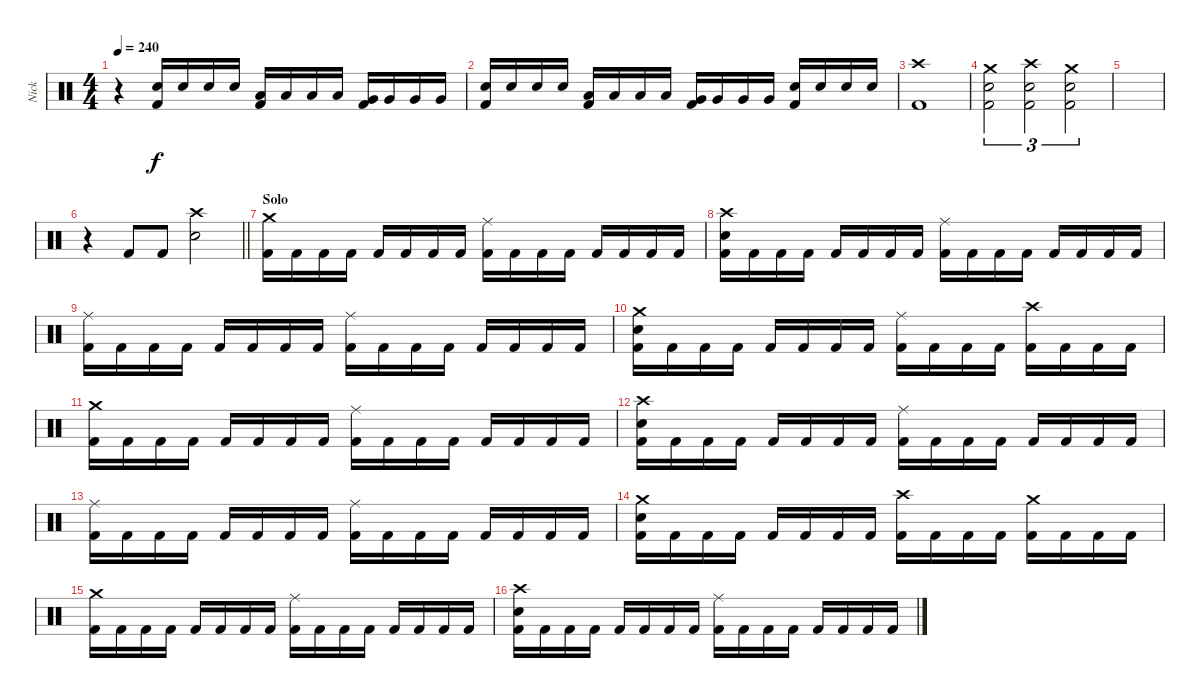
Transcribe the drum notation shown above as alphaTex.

\track ("Nick" "Nick") {instrument percussion}
\staff {score}
\articulation defaults
\ts (4 4)
\tempo 240
\clef neutral
\ks c
r.4{dy f} ("Electric Snare (hit)" "Kick (hit) 2").16 "Electric Snare (hit)".16 "Electric Snare (hit)".16 "Electric Snare (hit)".16 ("Low Tom (hit)" "Kick (hit) 2").16 "Low Tom (hit)".16 "Low Tom (hit)".16 "Low Tom (hit)".16 ("Very Low Tom (hit)" "Kick (hit) 2").16 "Very Low Tom (hit)".16 "Very Low Tom (hit)".16 "Very Low Tom (hit)".16 |
("Electric Snare (hit)" "Kick (hit) 2").16 "Electric Snare (hit)".16 "Electric Snare (hit)".16 "Electric Snare (hit)".16 ("Low Tom (hit)" "Kick (hit) 2").16 "Low Tom (hit)".16 "Low Tom (hit)".16 "Low Tom (hit)".16 ("Very Low Tom (hit)" "Kick (hit) 2").16 "Very Low Tom (hit)".16 "Very Low Tom (hit)".16 "Very Low Tom (hit)".16 ("Electric Snare (hit)" "Kick (hit) 2").16 "Electric Snare (hit)".16 "Electric Snare (hit)".16 "Electric Snare (hit)".16 |
("Crash high (hit)" "Kick (hit) 2").1 |
("Crash medium (hit)" "Electric Snare (hit)" "Kick (hit) 2").2{tu (3 2)} ("Crash high (hit)" "Electric Snare (hit)" "Kick (hit) 2").2{tu (3 2)} ("Crash medium (hit)" "Electric Snare (hit)" "Kick (hit) 2").2{tu (3 2)} |
|
\barLineRight lightlight
r.4 "Kick (hit) 2".8 "Kick (hit) 2".8 ("Crash high (hit)" "Electric Snare (hit)").2 |
\section ("" "Solo")
("Crash medium (hit)" "Kick (hit) 2").16 "Kick (hit) 2".16 "Kick (hit) 2".16 "Kick (hit) 2".16 "Kick (hit) 2".16 "Kick (hit) 2".16 "Kick (hit) 2".16 "Kick (hit) 2".16 ("Ride (middle)" "Kick (hit) 2").16 "Kick (hit) 2".16 "Kick (hit) 2".16 "Kick (hit) 2".16 "Kick (hit) 2".16 "Kick (hit) 2".16 "Kick (hit) 2".16 "Kick (hit) 2".16 |
("Crash high (hit)" "Electric Snare (hit)" "Kick (hit) 2").16 "Kick (hit) 2".16 "Kick (hit) 2".16 "Kick (hit) 2".16 "Kick (hit) 2".16 "Kick (hit) 2".16 "Kick (hit) 2".16 "Kick (hit) 2".16 ("Ride (middle)" "Kick (hit) 2").16 "Kick (hit) 2".16 "Kick (hit) 2".16 "Kick (hit) 2".16 "Kick (hit) 2".16 "Kick (hit) 2".16 "Kick (hit) 2".16 "Kick (hit) 2".16 |
("Ride (middle)" "Kick (hit) 2").16 "Kick (hit) 2".16 "Kick (hit) 2".16 "Kick (hit) 2".16 "Kick (hit) 2".16 "Kick (hit) 2".16 "Kick (hit) 2".16 "Kick (hit) 2".16 ("Ride (middle)" "Kick (hit) 2").16 "Kick (hit) 2".16 "Kick (hit) 2".16 "Kick (hit) 2".16 "Kick (hit) 2".16 "Kick (hit) 2".16 "Kick (hit) 2".16 "Kick (hit) 2".16 |
("Crash medium (hit)" "Electric Snare (hit)" "Kick (hit) 2").16 "Kick (hit) 2".16 "Kick (hit) 2".16 "Kick (hit) 2".16 "Kick (hit) 2".16 "Kick (hit) 2".16 "Kick (hit) 2".16 "Kick (hit) 2".16 ("Ride (middle)" "Kick (hit) 2").16 "Kick (hit) 2".16 "Kick (hit) 2".16 "Kick (hit) 2".16 ("Crash high (hit)" "Kick (hit) 2").16 "Kick (hit) 2".16 "Kick (hit) 2".16 "Kick (hit) 2".16 |
("Crash medium (hit)" "Kick (hit) 2").16 "Kick (hit) 2".16 "Kick (hit) 2".16 "Kick (hit) 2".16 "Kick (hit) 2".16 "Kick (hit) 2".16 "Kick (hit) 2".16 "Kick (hit) 2".16 ("Ride (middle)" "Kick (hit) 2").16 "Kick (hit) 2".16 "Kick (hit) 2".16 "Kick (hit) 2".16 "Kick (hit) 2".16 "Kick (hit) 2".16 "Kick (hit) 2".16 "Kick (hit) 2".16 |
("Crash high (hit)" "Electric Snare (hit)" "Kick (hit) 2").16 "Kick (hit) 2".16 "Kick (hit) 2".16 "Kick (hit) 2".16 "Kick (hit) 2".16 "Kick (hit) 2".16 "Kick (hit) 2".16 "Kick (hit) 2".16 ("Ride (middle)" "Kick (hit) 2").16 "Kick (hit) 2".16 "Kick (hit) 2".16 "Kick (hit) 2".16 "Kick (hit) 2".16 "Kick (hit) 2".16 "Kick (hit) 2".16 "Kick (hit) 2".16 |
("Ride (middle)" "Kick (hit) 2").16 "Kick (hit) 2".16 "Kick (hit) 2".16 "Kick (hit) 2".16 "Kick (hit) 2".16 "Kick (hit) 2".16 "Kick (hit) 2".16 "Kick (hit) 2".16 ("Ride (middle)" "Kick (hit) 2").16 "Kick (hit) 2".16 "Kick (hit) 2".16 "Kick (hit) 2".16 "Kick (hit) 2".16 "Kick (hit) 2".16 "Kick (hit) 2".16 "Kick (hit) 2".16 |
("Crash medium (hit)" "Electric Snare (hit)" "Kick (hit) 2").16 "Kick (hit) 2".16 "Kick (hit) 2".16 "Kick (hit) 2".16 "Kick (hit) 2".16 "Kick (hit) 2".16 "Kick (hit) 2".16 "Kick (hit) 2".16 ("Crash high (hit)" "Kick (hit) 2").16 "Kick (hit) 2".16 "Kick (hit) 2".16 "Kick (hit) 2".16 ("Crash medium (hit)" "Kick (hit) 2").16 "Kick (hit) 2".16 "Kick (hit) 2".16 "Kick (hit) 2".16 |
("Crash medium (hit)" "Kick (hit) 2").16 "Kick (hit) 2".16 "Kick (hit) 2".16 "Kick (hit) 2".16 "Kick (hit) 2".16 "Kick (hit) 2".16 "Kick (hit) 2".16 "Kick (hit) 2".16 ("Ride (middle)" "Kick (hit) 2").16 "Kick (hit) 2".16 "Kick (hit) 2".16 "Kick (hit) 2".16 "Kick (hit) 2".16 "Kick (hit) 2".16 "Kick (hit) 2".16 "Kick (hit) 2".16 |
("Crash high (hit)" "Electric Snare (hit)" "Kick (hit) 2").16 "Kick (hit) 2".16 "Kick (hit) 2".16 "Kick (hit) 2".16 "Kick (hit) 2".16 "Kick (hit) 2".16 "Kick (hit) 2".16 "Kick (hit) 2".16 ("Ride (middle)" "Kick (hit) 2").16 "Kick (hit) 2".16 "Kick (hit) 2".16 "Kick (hit) 2".16 "Kick (hit) 2".16 "Kick (hit) 2".16 "Kick (hit) 2".16 "Kick (hit) 2".16
